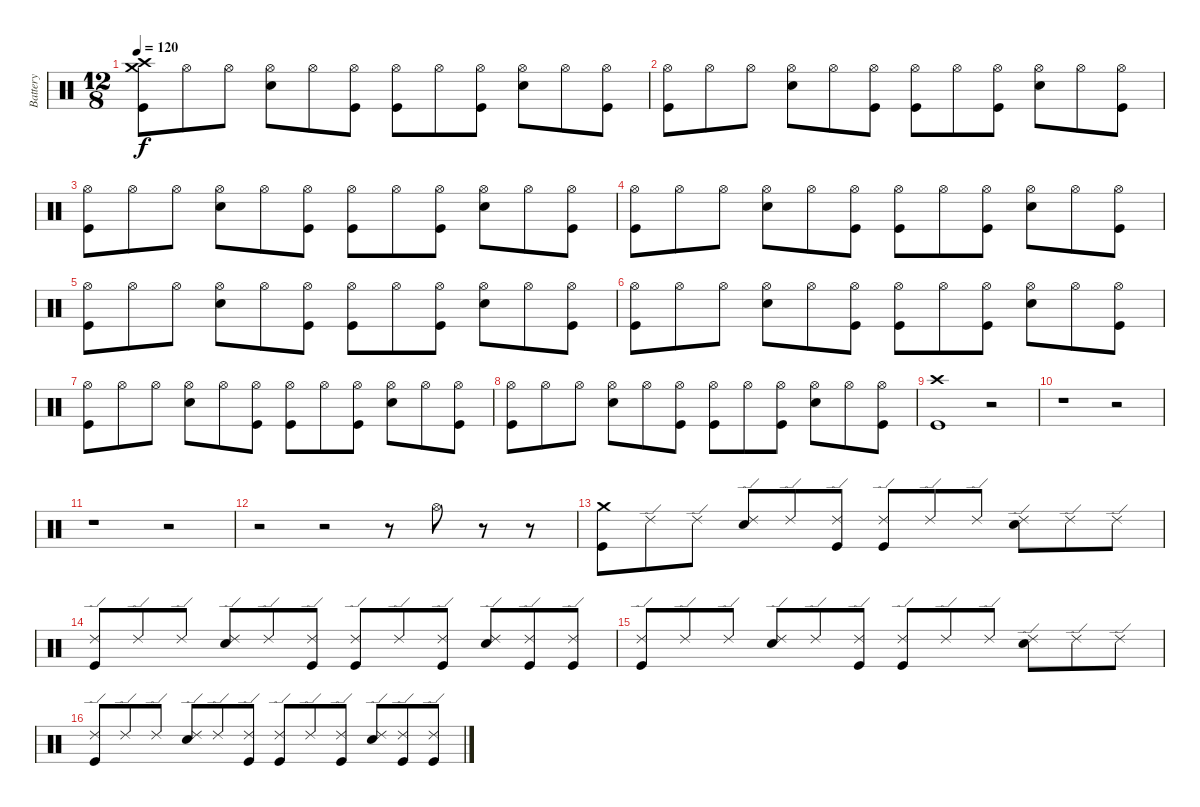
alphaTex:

\track ("Battery" "Battery") {instrument percussion}
\staff {score}
\articulation defaults
\ts (12 8)
\tempo 120
\clef neutral
\ks c
("Crash high (hit)" "Crash medium (hit)" "Kick (hit)").8{dy f} "Hi-Hat (open)".8 "Hi-Hat (open)".8 ("Hi-Hat (open)" "Electric Snare (hit)").8 "Hi-Hat (open)".8 ("Hi-Hat (open)" "Kick (hit)").8 ("Hi-Hat (open)" "Kick (hit)").8 "Hi-Hat (open)".8 ("Hi-Hat (open)" "Kick (hit)").8 ("Hi-Hat (open)" "Electric Snare (hit)").8 "Hi-Hat (open)".8 ("Hi-Hat (open)" "Kick (hit)").8 |
("Hi-Hat (open)" "Kick (hit)").8 "Hi-Hat (open)".8 "Hi-Hat (open)".8 ("Hi-Hat (open)" "Electric Snare (hit)").8 "Hi-Hat (open)".8 ("Hi-Hat (open)" "Kick (hit)").8 ("Hi-Hat (open)" "Kick (hit)").8 "Hi-Hat (open)".8 ("Hi-Hat (open)" "Kick (hit)").8 ("Hi-Hat (open)" "Electric Snare (hit)").8 "Hi-Hat (open)".8 ("Hi-Hat (open)" "Kick (hit)").8 |
("Hi-Hat (open)" "Kick (hit)").8 "Hi-Hat (open)".8 "Hi-Hat (open)".8 ("Hi-Hat (open)" "Electric Snare (hit)").8 "Hi-Hat (open)".8 ("Hi-Hat (open)" "Kick (hit)").8 ("Hi-Hat (open)" "Kick (hit)").8 "Hi-Hat (open)".8 ("Hi-Hat (open)" "Kick (hit)").8 ("Hi-Hat (open)" "Electric Snare (hit)").8 "Hi-Hat (open)".8 ("Hi-Hat (open)" "Kick (hit)").8 |
("Hi-Hat (open)" "Kick (hit)").8 "Hi-Hat (open)".8 "Hi-Hat (open)".8 ("Hi-Hat (open)" "Electric Snare (hit)").8 "Hi-Hat (open)".8 ("Hi-Hat (open)" "Kick (hit)").8 ("Hi-Hat (open)" "Kick (hit)").8 "Hi-Hat (open)".8 ("Hi-Hat (open)" "Kick (hit)").8 ("Hi-Hat (open)" "Electric Snare (hit)").8 "Hi-Hat (open)".8 ("Hi-Hat (open)" "Kick (hit)").8 |
("Hi-Hat (open)" "Kick (hit)").8 "Hi-Hat (open)".8 "Hi-Hat (open)".8 ("Hi-Hat (open)" "Electric Snare (hit)").8 "Hi-Hat (open)".8 ("Hi-Hat (open)" "Kick (hit)").8 ("Hi-Hat (open)" "Kick (hit)").8 "Hi-Hat (open)".8 ("Hi-Hat (open)" "Kick (hit)").8 ("Hi-Hat (open)" "Electric Snare (hit)").8 "Hi-Hat (open)".8 ("Hi-Hat (open)" "Kick (hit)").8 |
("Hi-Hat (open)" "Kick (hit)").8 "Hi-Hat (open)".8 "Hi-Hat (open)".8 ("Hi-Hat (open)" "Electric Snare (hit)").8 "Hi-Hat (open)".8 ("Hi-Hat (open)" "Kick (hit)").8 ("Hi-Hat (open)" "Kick (hit)").8 "Hi-Hat (open)".8 ("Hi-Hat (open)" "Kick (hit)").8 ("Hi-Hat (open)" "Electric Snare (hit)").8 "Hi-Hat (open)".8 ("Hi-Hat (open)" "Kick (hit)").8 |
("Hi-Hat (open)" "Kick (hit)").8 "Hi-Hat (open)".8 "Hi-Hat (open)".8 ("Hi-Hat (open)" "Electric Snare (hit)").8 "Hi-Hat (open)".8 ("Hi-Hat (open)" "Kick (hit)").8 ("Hi-Hat (open)" "Kick (hit)").8 "Hi-Hat (open)".8 ("Hi-Hat (open)" "Kick (hit)").8 ("Hi-Hat (open)" "Electric Snare (hit)").8 "Hi-Hat (open)".8 ("Hi-Hat (open)" "Kick (hit)").8 |
("Hi-Hat (open)" "Kick (hit)").8 "Hi-Hat (open)".8 "Hi-Hat (open)".8 ("Hi-Hat (open)" "Electric Snare (hit)").8 "Hi-Hat (open)".8 ("Hi-Hat (open)" "Kick (hit)").8 ("Hi-Hat (open)" "Kick (hit)").8 "Hi-Hat (open)".8 ("Hi-Hat (open)" "Kick (hit)").8 ("Hi-Hat (open)" "Electric Snare (hit)").8 "Hi-Hat (open)".8 ("Hi-Hat (open)" "Kick (hit)").8 |
("Crash high (hit)" "Kick (hit)").1 r.2 |
r.1 r.2 |
r.1 r.2 |
r.2 r.2 r.8 "Hi-Hat (open)".8 r.8 r.8 |
("Crash medium (hit)" "Kick (hit)").8 "Ride (edge) 2".8 "Ride (edge) 2".8 ("Ride (edge) 2" "Electric Snare (hit)").8 "Ride (edge) 2".8 ("Ride (edge) 2" "Kick (hit)").8 ("Ride (edge) 2" "Kick (hit)").8 "Ride (edge) 2".8 "Ride (edge) 2".8 ("Ride (edge) 2" "Electric Snare (hit)").8 "Ride (edge) 2".8 "Ride (edge) 2".8 |
("Ride (edge) 2" "Kick (hit)").8 "Ride (edge) 2".8 "Ride (edge) 2".8 ("Ride (edge) 2" "Electric Snare (hit)").8 "Ride (edge) 2".8 ("Ride (edge) 2" "Kick (hit)").8 ("Ride (edge) 2" "Kick (hit)").8 "Ride (edge) 2".8 ("Ride (edge) 2" "Kick (hit)").8 ("Ride (edge) 2" "Electric Snare (hit)").8 ("Ride (edge) 2" "Kick (hit)").8 ("Ride (edge) 2" "Kick (hit)").8 |
("Ride (edge) 2" "Kick (hit)").8 "Ride (edge) 2".8 "Ride (edge) 2".8 ("Ride (edge) 2" "Electric Snare (hit)").8 "Ride (edge) 2".8 ("Ride (edge) 2" "Kick (hit)").8 ("Ride (edge) 2" "Kick (hit)").8 "Ride (edge) 2".8 "Ride (edge) 2".8 ("Ride (edge) 2" "Electric Snare (hit)").8 "Ride (edge) 2".8 "Ride (edge) 2".8 |
("Ride (edge) 2" "Kick (hit)").8 "Ride (edge) 2".8 "Ride (edge) 2".8 ("Ride (edge) 2" "Electric Snare (hit)").8 "Ride (edge) 2".8 ("Ride (edge) 2" "Kick (hit)").8 ("Ride (edge) 2" "Kick (hit)").8 "Ride (edge) 2".8 ("Ride (edge) 2" "Kick (hit)").8 ("Ride (edge) 2" "Electric Snare (hit)").8 ("Ride (edge) 2" "Kick (hit)").8 ("Ride (edge) 2" "Kick (hit)").8
